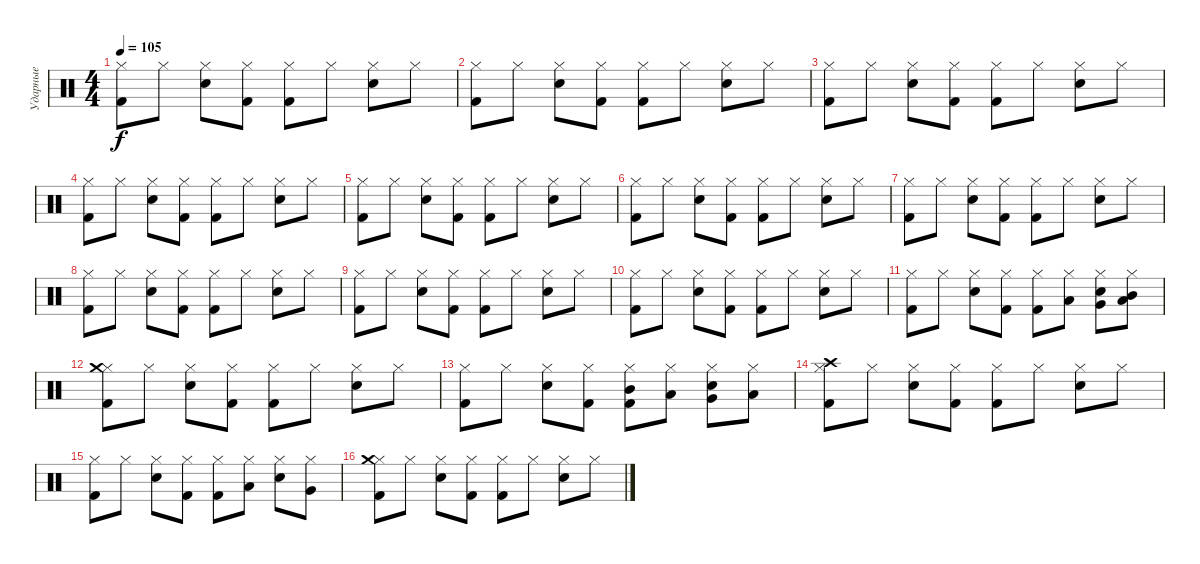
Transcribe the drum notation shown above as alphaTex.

\track ("Ударные" "Ударные") {instrument percussion}
\staff {score}
\articulation defaults
\ts (4 4)
\tempo 105
\clef neutral
\ks c
("Kick (hit) 2" "Hi-Hat (closed)").8{dy f} "Hi-Hat (closed)".8 ("Hi-Hat (closed)" "Electric Snare (hit)").8 ("Kick (hit) 2" "Hi-Hat (closed)").8 ("Kick (hit) 2" "Hi-Hat (closed)").8 "Hi-Hat (closed)".8 ("Electric Snare (hit)" "Hi-Hat (closed)").8 "Hi-Hat (closed)".8 |
("Kick (hit) 2" "Hi-Hat (closed)").8 "Hi-Hat (closed)".8 ("Hi-Hat (closed)" "Electric Snare (hit)").8 ("Kick (hit) 2" "Hi-Hat (closed)").8 ("Kick (hit) 2" "Hi-Hat (closed)").8 "Hi-Hat (closed)".8 ("Electric Snare (hit)" "Hi-Hat (closed)").8 "Hi-Hat (closed)".8 |
("Kick (hit) 2" "Hi-Hat (closed)").8 "Hi-Hat (closed)".8 ("Hi-Hat (closed)" "Electric Snare (hit)").8 ("Kick (hit) 2" "Hi-Hat (closed)").8 ("Kick (hit) 2" "Hi-Hat (closed)").8 "Hi-Hat (closed)".8 ("Electric Snare (hit)" "Hi-Hat (closed)").8 "Hi-Hat (closed)".8 |
("Kick (hit) 2" "Hi-Hat (closed)").8 "Hi-Hat (closed)".8 ("Hi-Hat (closed)" "Electric Snare (hit)").8 ("Kick (hit) 2" "Hi-Hat (closed)").8 ("Kick (hit) 2" "Hi-Hat (closed)").8 "Hi-Hat (closed)".8 ("Electric Snare (hit)" "Hi-Hat (closed)").8 "Hi-Hat (closed)".8 |
("Kick (hit) 2" "Hi-Hat (closed)").8 "Hi-Hat (closed)".8 ("Hi-Hat (closed)" "Electric Snare (hit)").8 ("Kick (hit) 2" "Hi-Hat (closed)").8 ("Kick (hit) 2" "Hi-Hat (closed)").8 "Hi-Hat (closed)".8 ("Electric Snare (hit)" "Hi-Hat (closed)").8 "Hi-Hat (closed)".8 |
("Kick (hit) 2" "Hi-Hat (closed)").8 "Hi-Hat (closed)".8 ("Hi-Hat (closed)" "Electric Snare (hit)").8 ("Kick (hit) 2" "Hi-Hat (closed)").8 ("Kick (hit) 2" "Hi-Hat (closed)").8 "Hi-Hat (closed)".8 ("Electric Snare (hit)" "Hi-Hat (closed)").8 "Hi-Hat (closed)".8 |
("Kick (hit) 2" "Hi-Hat (closed)").8 "Hi-Hat (closed)".8 ("Hi-Hat (closed)" "Electric Snare (hit)").8 ("Kick (hit) 2" "Hi-Hat (closed)").8 ("Kick (hit) 2" "Hi-Hat (closed)").8 "Hi-Hat (closed)".8 ("Electric Snare (hit)" "Hi-Hat (closed)").8 "Hi-Hat (closed)".8 |
("Kick (hit) 2" "Hi-Hat (closed)").8 "Hi-Hat (closed)".8 ("Hi-Hat (closed)" "Electric Snare (hit)").8 ("Kick (hit) 2" "Hi-Hat (closed)").8 ("Kick (hit) 2" "Hi-Hat (closed)").8 "Hi-Hat (closed)".8 ("Electric Snare (hit)" "Hi-Hat (closed)").8 "Hi-Hat (closed)".8 |
("Kick (hit) 2" "Hi-Hat (closed)").8 "Hi-Hat (closed)".8 ("Hi-Hat (closed)" "Electric Snare (hit)").8 ("Kick (hit) 2" "Hi-Hat (closed)").8 ("Kick (hit) 2" "Hi-Hat (closed)").8 "Hi-Hat (closed)".8 ("Electric Snare (hit)" "Hi-Hat (closed)").8 "Hi-Hat (closed)".8 |
("Kick (hit) 2" "Hi-Hat (closed)").8 "Hi-Hat (closed)".8 ("Hi-Hat (closed)" "Electric Snare (hit)").8 ("Kick (hit) 2" "Hi-Hat (closed)").8 ("Kick (hit) 2" "Hi-Hat (closed)").8 "Hi-Hat (closed)".8 ("Electric Snare (hit)" "Hi-Hat (closed)").8 "Hi-Hat (closed)".8 |
("Kick (hit) 2" "Hi-Hat (closed)").8 "Hi-Hat (closed)".8 ("Hi-Hat (closed)" "Electric Snare (hit)").8 ("Kick (hit) 2" "Hi-Hat (closed)").8 ("Kick (hit) 2" "Hi-Hat (closed)").8 ("Hi-Hat (closed)" "Low Tom (hit)").8 ("Electric Snare (hit)" "Hi-Hat (closed)" "Very Low Tom (hit)").8 ("Hi-Hat (closed)" "Low Floor Tom (hit)" "Mid Tom (hit)").8 |
("Kick (hit) 2" "Hi-Hat (closed)" "Crash medium (hit)").8 "Hi-Hat (closed)".8 ("Hi-Hat (closed)" "Electric Snare (hit)").8 ("Kick (hit) 2" "Hi-Hat (closed)").8 ("Kick (hit) 2" "Hi-Hat (closed)").8 "Hi-Hat (closed)".8 ("Electric Snare (hit)" "Hi-Hat (closed)").8 "Hi-Hat (closed)".8 |
("Kick (hit) 2" "Hi-Hat (closed)").8 "Hi-Hat (closed)".8 ("Hi-Hat (closed)" "Electric Snare (hit)").8 ("Kick (hit) 2" "Hi-Hat (closed)").8 ("Kick (hit) 2" "Hi-Hat (closed)" "Mid Tom (hit)").8 ("Hi-Hat (closed)" "Low Tom (hit)").8 ("Electric Snare (hit)" "Hi-Hat (closed)" "Very Low Tom (hit)").8 ("Hi-Hat (closed)" "Low Floor Tom (hit)").8 |
("Kick (hit) 2" "Hi-Hat (closed)" "Crash high (hit)").8 "Hi-Hat (closed)".8 ("Hi-Hat (closed)" "Electric Snare (hit)").8 ("Kick (hit) 2" "Hi-Hat (closed)").8 ("Kick (hit) 2" "Hi-Hat (closed)").8 "Hi-Hat (closed)".8 ("Electric Snare (hit)" "Hi-Hat (closed)").8 "Hi-Hat (closed)".8 |
("Kick (hit) 2" "Hi-Hat (closed)").8 "Hi-Hat (closed)".8 ("Hi-Hat (closed)" "Electric Snare (hit)").8 ("Kick (hit) 2" "Hi-Hat (closed)").8 ("Kick (hit) 2" "Hi-Hat (closed)").8 ("Hi-Hat (closed)" "Low Tom (hit)").8 ("Electric Snare (hit)" "Hi-Hat (closed)").8 ("Hi-Hat (closed)" "Very Low Tom (hit)").8 |
("Kick (hit) 2" "Hi-Hat (closed)" "Crash medium (hit)").8 "Hi-Hat (closed)".8 ("Hi-Hat (closed)" "Electric Snare (hit)").8 ("Kick (hit) 2" "Hi-Hat (closed)").8 ("Kick (hit) 2" "Hi-Hat (closed)").8 "Hi-Hat (closed)".8 ("Electric Snare (hit)" "Hi-Hat (closed)").8 "Hi-Hat (closed)".8
